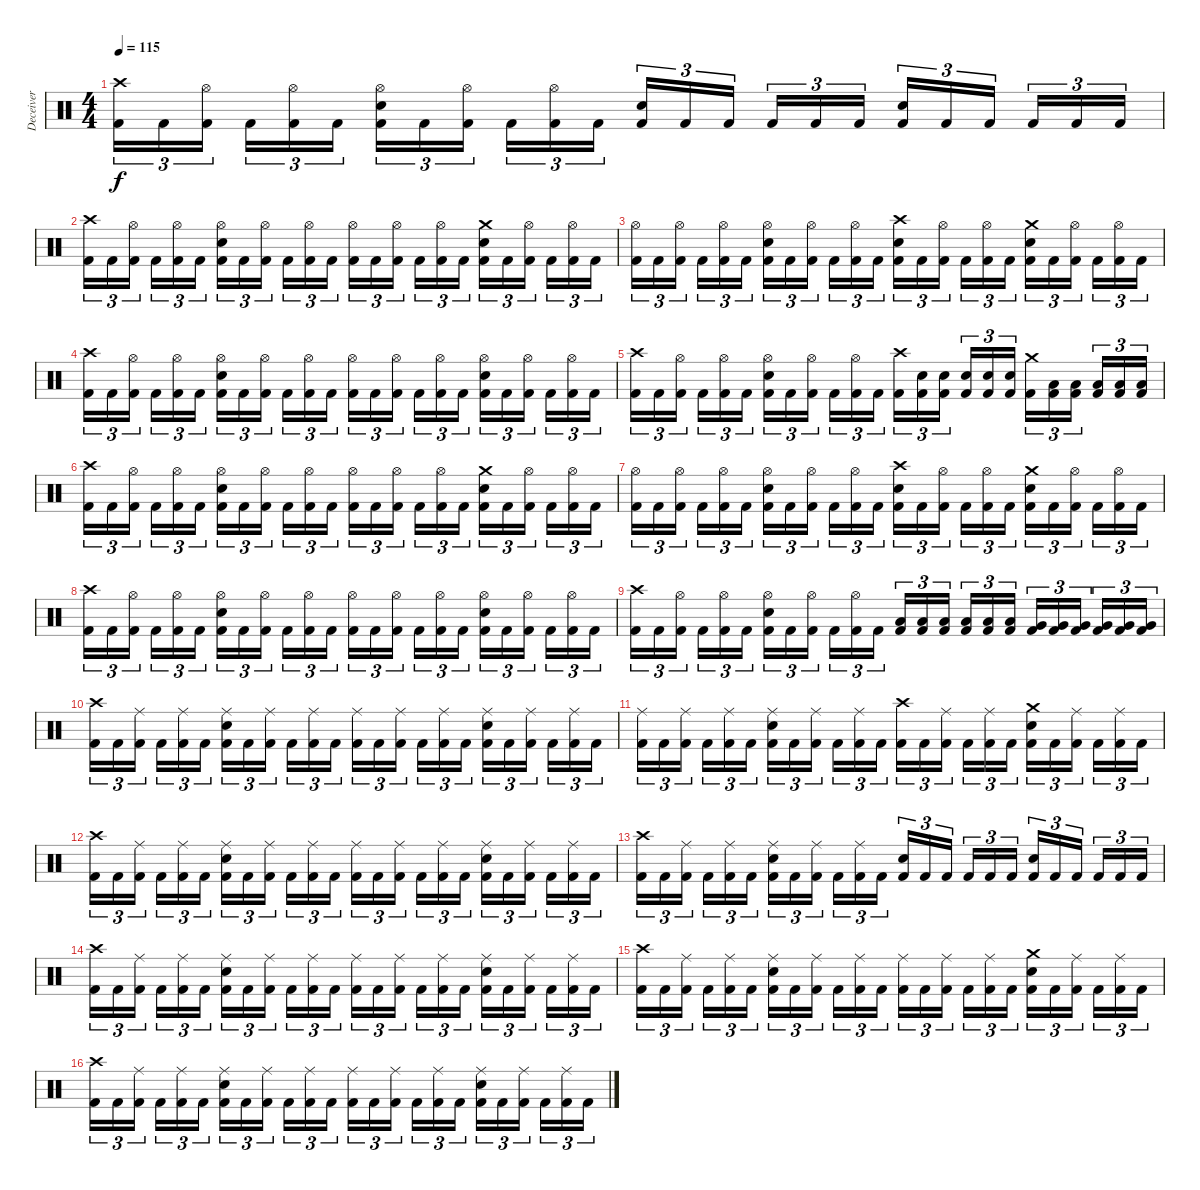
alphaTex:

\track ("Deceiver" "Deceiver") {instrument percussion}
\staff {score}
\articulation defaults
\ts (4 4)
\tempo 115
\clef neutral
\ks c
("Crash high (hit)" "Kick (hit) 2").16{tu (3 2) dy f} "Kick (hit) 2".16{tu (3 2)} ("Hi-Hat (open)" "Kick (hit) 2").16{tu (3 2) beam splitsecondary} "Kick (hit) 2".16{tu (3 2)} ("Hi-Hat (open)" "Kick (hit) 2").16{tu (3 2)} "Kick (hit) 2".16{tu (3 2)} ("Hi-Hat (open)" "Electric Snare (hit)" "Kick (hit) 2").16{tu (3 2)} "Kick (hit) 2".16{tu (3 2)} ("Hi-Hat (open)" "Kick (hit) 2").16{tu (3 2) beam splitsecondary} "Kick (hit) 2".16{tu (3 2)} ("Hi-Hat (open)" "Kick (hit) 2").16{tu (3 2)} "Kick (hit) 2".16{tu (3 2)} ("Electric Snare (hit)" "Kick (hit) 2").16{tu (3 2)} "Kick (hit) 2".16{tu (3 2)} "Kick (hit) 2".16{tu (3 2) beam splitsecondary} "Kick (hit) 2".16{tu (3 2)} "Kick (hit) 2".16{tu (3 2)} "Kick (hit) 2".16{tu (3 2)} ("Electric Snare (hit)" "Kick (hit) 2").16{tu (3 2)} "Kick (hit) 2".16{tu (3 2)} "Kick (hit) 2".16{tu (3 2) beam splitsecondary} "Kick (hit) 2".16{tu (3 2)} "Kick (hit) 2".16{tu (3 2)} "Kick (hit) 2".16{tu (3 2)} |
("Crash high (hit)" "Kick (hit) 2").16{tu (3 2)} "Kick (hit) 2".16{tu (3 2)} ("Hi-Hat (open)" "Kick (hit) 2").16{tu (3 2) beam splitsecondary} "Kick (hit) 2".16{tu (3 2)} ("Hi-Hat (open)" "Kick (hit) 2").16{tu (3 2)} "Kick (hit) 2".16{tu (3 2)} ("Hi-Hat (open)" "Electric Snare (hit)" "Kick (hit) 2").16{tu (3 2)} "Kick (hit) 2".16{tu (3 2)} ("Hi-Hat (open)" "Kick (hit) 2").16{tu (3 2) beam splitsecondary} "Kick (hit) 2".16{tu (3 2)} ("Hi-Hat (open)" "Kick (hit) 2").16{tu (3 2)} "Kick (hit) 2".16{tu (3 2)} ("Hi-Hat (open)" "Kick (hit) 2").16{tu (3 2)} "Kick (hit) 2".16{tu (3 2)} ("Hi-Hat (open)" "Kick (hit) 2").16{tu (3 2) beam splitsecondary} "Kick (hit) 2".16{tu (3 2)} ("Hi-Hat (open)" "Kick (hit) 2").16{tu (3 2)} "Kick (hit) 2".16{tu (3 2)} ("Crash medium (hit)" "Electric Snare (hit)" "Kick (hit) 2").16{tu (3 2)} "Kick (hit) 2".16{tu (3 2)} ("Hi-Hat (open)" "Kick (hit) 2").16{tu (3 2) beam splitsecondary} "Kick (hit) 2".16{tu (3 2)} ("Hi-Hat (open)" "Kick (hit) 2").16{tu (3 2)} "Kick (hit) 2".16{tu (3 2)} |
("Hi-Hat (open)" "Kick (hit) 2").16{tu (3 2)} "Kick (hit) 2".16{tu (3 2)} ("Hi-Hat (open)" "Kick (hit) 2").16{tu (3 2) beam splitsecondary} "Kick (hit) 2".16{tu (3 2)} ("Hi-Hat (open)" "Kick (hit) 2").16{tu (3 2)} "Kick (hit) 2".16{tu (3 2)} ("Hi-Hat (open)" "Electric Snare (hit)" "Kick (hit) 2").16{tu (3 2)} "Kick (hit) 2".16{tu (3 2)} ("Hi-Hat (open)" "Kick (hit) 2").16{tu (3 2) beam splitsecondary} "Kick (hit) 2".16{tu (3 2)} ("Hi-Hat (open)" "Kick (hit) 2").16{tu (3 2)} "Kick (hit) 2".16{tu (3 2)} ("Crash high (hit)" "Electric Snare (hit)" "Kick (hit) 2").16{tu (3 2)} "Kick (hit) 2".16{tu (3 2)} ("Hi-Hat (open)" "Kick (hit) 2").16{tu (3 2) beam splitsecondary} "Kick (hit) 2".16{tu (3 2)} ("Hi-Hat (open)" "Kick (hit) 2").16{tu (3 2)} "Kick (hit) 2".16{tu (3 2)} ("Crash medium (hit)" "Electric Snare (hit)" "Kick (hit) 2").16{tu (3 2)} "Kick (hit) 2".16{tu (3 2)} ("Hi-Hat (open)" "Kick (hit) 2").16{tu (3 2) beam splitsecondary} "Kick (hit) 2".16{tu (3 2)} ("Hi-Hat (open)" "Kick (hit) 2").16{tu (3 2)} "Kick (hit) 2".16{tu (3 2)} |
("Crash high (hit)" "Kick (hit) 2").16{tu (3 2)} "Kick (hit) 2".16{tu (3 2)} ("Hi-Hat (open)" "Kick (hit) 2").16{tu (3 2) beam splitsecondary} "Kick (hit) 2".16{tu (3 2)} ("Hi-Hat (open)" "Kick (hit) 2").16{tu (3 2)} "Kick (hit) 2".16{tu (3 2)} ("Hi-Hat (open)" "Electric Snare (hit)" "Kick (hit) 2").16{tu (3 2)} "Kick (hit) 2".16{tu (3 2)} ("Hi-Hat (open)" "Kick (hit) 2").16{tu (3 2) beam splitsecondary} "Kick (hit) 2".16{tu (3 2)} ("Hi-Hat (open)" "Kick (hit) 2").16{tu (3 2)} "Kick (hit) 2".16{tu (3 2)} ("Hi-Hat (open)" "Kick (hit) 2").16{tu (3 2)} "Kick (hit) 2".16{tu (3 2)} ("Hi-Hat (open)" "Kick (hit) 2").16{tu (3 2) beam splitsecondary} "Kick (hit) 2".16{tu (3 2)} ("Hi-Hat (open)" "Kick (hit) 2").16{tu (3 2)} "Kick (hit) 2".16{tu (3 2)} ("Hi-Hat (open)" "Electric Snare (hit)" "Kick (hit) 2").16{tu (3 2)} "Kick (hit) 2".16{tu (3 2)} ("Hi-Hat (open)" "Kick (hit) 2").16{tu (3 2) beam splitsecondary} "Kick (hit) 2".16{tu (3 2)} ("Hi-Hat (open)" "Kick (hit) 2").16{tu (3 2)} "Kick (hit) 2".16{tu (3 2)} |
("Crash high (hit)" "Kick (hit) 2").16{tu (3 2)} "Kick (hit) 2".16{tu (3 2)} ("Hi-Hat (open)" "Kick (hit) 2").16{tu (3 2) beam splitsecondary} "Kick (hit) 2".16{tu (3 2)} ("Hi-Hat (open)" "Kick (hit) 2").16{tu (3 2)} "Kick (hit) 2".16{tu (3 2)} ("Hi-Hat (open)" "Electric Snare (hit)" "Kick (hit) 2").16{tu (3 2)} "Kick (hit) 2".16{tu (3 2)} ("Hi-Hat (open)" "Kick (hit) 2").16{tu (3 2) beam splitsecondary} "Kick (hit) 2".16{tu (3 2)} ("Hi-Hat (open)" "Kick (hit) 2").16{tu (3 2)} "Kick (hit) 2".16{tu (3 2)} ("Crash high (hit)" "Kick (hit) 2").16{tu (3 2)} ("Electric Snare (hit)" "Kick (hit) 2").16{tu (3 2)} ("Electric Snare (hit)" "Kick (hit) 2").16{tu (3 2) beam splitsecondary} ("Electric Snare (hit)" "Kick (hit) 2").16{tu (3 2)} ("Electric Snare (hit)" "Kick (hit) 2").16{tu (3 2)} ("Electric Snare (hit)" "Kick (hit) 2").16{tu (3 2)} ("Crash medium (hit)" "Kick (hit) 2").16{tu (3 2)} ("Low Tom (hit)" "Kick (hit) 2").16{tu (3 2)} ("Low Tom (hit)" "Kick (hit) 2").16{tu (3 2) beam splitsecondary} ("Low Tom (hit)" "Kick (hit) 2").16{tu (3 2)} ("Low Tom (hit)" "Kick (hit) 2").16{tu (3 2)} ("Low Tom (hit)" "Kick (hit) 2").16{tu (3 2)} |
("Crash high (hit)" "Kick (hit) 2").16{tu (3 2)} "Kick (hit) 2".16{tu (3 2)} ("Hi-Hat (open)" "Kick (hit) 2").16{tu (3 2) beam splitsecondary} "Kick (hit) 2".16{tu (3 2)} ("Hi-Hat (open)" "Kick (hit) 2").16{tu (3 2)} "Kick (hit) 2".16{tu (3 2)} ("Hi-Hat (open)" "Electric Snare (hit)" "Kick (hit) 2").16{tu (3 2)} "Kick (hit) 2".16{tu (3 2)} ("Hi-Hat (open)" "Kick (hit) 2").16{tu (3 2) beam splitsecondary} "Kick (hit) 2".16{tu (3 2)} ("Hi-Hat (open)" "Kick (hit) 2").16{tu (3 2)} "Kick (hit) 2".16{tu (3 2)} ("Hi-Hat (open)" "Kick (hit) 2").16{tu (3 2)} "Kick (hit) 2".16{tu (3 2)} ("Hi-Hat (open)" "Kick (hit) 2").16{tu (3 2) beam splitsecondary} "Kick (hit) 2".16{tu (3 2)} ("Hi-Hat (open)" "Kick (hit) 2").16{tu (3 2)} "Kick (hit) 2".16{tu (3 2)} ("Crash medium (hit)" "Electric Snare (hit)" "Kick (hit) 2").16{tu (3 2)} "Kick (hit) 2".16{tu (3 2)} ("Hi-Hat (open)" "Kick (hit) 2").16{tu (3 2) beam splitsecondary} "Kick (hit) 2".16{tu (3 2)} ("Hi-Hat (open)" "Kick (hit) 2").16{tu (3 2)} "Kick (hit) 2".16{tu (3 2)} |
("Hi-Hat (open)" "Kick (hit) 2").16{tu (3 2)} "Kick (hit) 2".16{tu (3 2)} ("Hi-Hat (open)" "Kick (hit) 2").16{tu (3 2) beam splitsecondary} "Kick (hit) 2".16{tu (3 2)} ("Hi-Hat (open)" "Kick (hit) 2").16{tu (3 2)} "Kick (hit) 2".16{tu (3 2)} ("Hi-Hat (open)" "Electric Snare (hit)" "Kick (hit) 2").16{tu (3 2)} "Kick (hit) 2".16{tu (3 2)} ("Hi-Hat (open)" "Kick (hit) 2").16{tu (3 2) beam splitsecondary} "Kick (hit) 2".16{tu (3 2)} ("Hi-Hat (open)" "Kick (hit) 2").16{tu (3 2)} "Kick (hit) 2".16{tu (3 2)} ("Crash high (hit)" "Electric Snare (hit)" "Kick (hit) 2").16{tu (3 2)} "Kick (hit) 2".16{tu (3 2)} ("Hi-Hat (open)" "Kick (hit) 2").16{tu (3 2) beam splitsecondary} "Kick (hit) 2".16{tu (3 2)} ("Hi-Hat (open)" "Kick (hit) 2").16{tu (3 2)} "Kick (hit) 2".16{tu (3 2)} ("Crash medium (hit)" "Electric Snare (hit)" "Kick (hit) 2").16{tu (3 2)} "Kick (hit) 2".16{tu (3 2)} ("Hi-Hat (open)" "Kick (hit) 2").16{tu (3 2) beam splitsecondary} "Kick (hit) 2".16{tu (3 2)} ("Hi-Hat (open)" "Kick (hit) 2").16{tu (3 2)} "Kick (hit) 2".16{tu (3 2)} |
("Crash high (hit)" "Kick (hit) 2").16{tu (3 2)} "Kick (hit) 2".16{tu (3 2)} ("Hi-Hat (open)" "Kick (hit) 2").16{tu (3 2) beam splitsecondary} "Kick (hit) 2".16{tu (3 2)} ("Hi-Hat (open)" "Kick (hit) 2").16{tu (3 2)} "Kick (hit) 2".16{tu (3 2)} ("Hi-Hat (open)" "Electric Snare (hit)" "Kick (hit) 2").16{tu (3 2)} "Kick (hit) 2".16{tu (3 2)} ("Hi-Hat (open)" "Kick (hit) 2").16{tu (3 2) beam splitsecondary} "Kick (hit) 2".16{tu (3 2)} ("Hi-Hat (open)" "Kick (hit) 2").16{tu (3 2)} "Kick (hit) 2".16{tu (3 2)} ("Hi-Hat (open)" "Kick (hit) 2").16{tu (3 2)} "Kick (hit) 2".16{tu (3 2)} ("Hi-Hat (open)" "Kick (hit) 2").16{tu (3 2) beam splitsecondary} "Kick (hit) 2".16{tu (3 2)} ("Hi-Hat (open)" "Kick (hit) 2").16{tu (3 2)} "Kick (hit) 2".16{tu (3 2)} ("Hi-Hat (open)" "Electric Snare (hit)" "Kick (hit) 2").16{tu (3 2)} "Kick (hit) 2".16{tu (3 2)} ("Hi-Hat (open)" "Kick (hit) 2").16{tu (3 2) beam splitsecondary} "Kick (hit) 2".16{tu (3 2)} ("Hi-Hat (open)" "Kick (hit) 2").16{tu (3 2)} "Kick (hit) 2".16{tu (3 2)} |
("Crash high (hit)" "Kick (hit) 2").16{tu (3 2)} "Kick (hit) 2".16{tu (3 2)} ("Hi-Hat (open)" "Kick (hit) 2").16{tu (3 2) beam splitsecondary} "Kick (hit) 2".16{tu (3 2)} ("Hi-Hat (open)" "Kick (hit) 2").16{tu (3 2)} "Kick (hit) 2".16{tu (3 2)} ("Hi-Hat (open)" "Electric Snare (hit)" "Kick (hit) 2").16{tu (3 2)} "Kick (hit) 2".16{tu (3 2)} ("Hi-Hat (open)" "Kick (hit) 2").16{tu (3 2) beam splitsecondary} "Kick (hit) 2".16{tu (3 2)} ("Hi-Hat (open)" "Kick (hit) 2").16{tu (3 2)} "Kick (hit) 2".16{tu (3 2)} ("Low Tom (hit)" "Kick (hit) 2").16{tu (3 2)} ("Low Tom (hit)" "Kick (hit) 2").16{tu (3 2)} ("Low Tom (hit)" "Kick (hit) 2").16{tu (3 2) beam splitsecondary} ("Low Tom (hit)" "Kick (hit) 2").16{tu (3 2)} ("Low Tom (hit)" "Kick (hit) 2").16{tu (3 2)} ("Low Tom (hit)" "Kick (hit) 2").16{tu (3 2)} ("Very Low Tom (hit)" "Kick (hit) 2").16{tu (3 2)} ("Very Low Tom (hit)" "Kick (hit) 2").16{tu (3 2)} ("Very Low Tom (hit)" "Kick (hit) 2").16{tu (3 2) beam splitsecondary} ("Very Low Tom (hit)" "Kick (hit) 2").16{tu (3 2)} ("Very Low Tom (hit)" "Kick (hit) 2").16{tu (3 2)} ("Very Low Tom (hit)" "Kick (hit) 2").16{tu (3 2)} |
("Crash high (hit)" "Kick (hit) 2").16{tu (3 2)} "Kick (hit) 2".16{tu (3 2)} ("Ride (middle)" "Kick (hit) 2").16{tu (3 2) beam splitsecondary} "Kick (hit) 2".16{tu (3 2)} ("Ride (middle)" "Kick (hit) 2").16{tu (3 2)} "Kick (hit) 2".16{tu (3 2)} ("Ride (middle)" "Electric Snare (hit)" "Kick (hit) 2").16{tu (3 2)} "Kick (hit) 2".16{tu (3 2)} ("Ride (middle)" "Kick (hit) 2").16{tu (3 2) beam splitsecondary} "Kick (hit) 2".16{tu (3 2)} ("Ride (middle)" "Kick (hit) 2").16{tu (3 2)} "Kick (hit) 2".16{tu (3 2)} ("Ride (middle)" "Kick (hit) 2").16{tu (3 2)} "Kick (hit) 2".16{tu (3 2)} ("Ride (middle)" "Kick (hit) 2").16{tu (3 2) beam splitsecondary} "Kick (hit) 2".16{tu (3 2)} ("Ride (middle)" "Kick (hit) 2").16{tu (3 2)} "Kick (hit) 2".16{tu (3 2)} ("Ride (middle)" "Electric Snare (hit)" "Kick (hit) 2").16{tu (3 2)} "Kick (hit) 2".16{tu (3 2)} ("Ride (middle)" "Kick (hit) 2").16{tu (3 2) beam splitsecondary} "Kick (hit) 2".16{tu (3 2)} ("Ride (middle)" "Kick (hit) 2").16{tu (3 2)} "Kick (hit) 2".16{tu (3 2)} |
("Ride (middle)" "Kick (hit) 2").16{tu (3 2)} "Kick (hit) 2".16{tu (3 2)} ("Ride (middle)" "Kick (hit) 2").16{tu (3 2) beam splitsecondary} "Kick (hit) 2".16{tu (3 2)} ("Ride (middle)" "Kick (hit) 2").16{tu (3 2)} "Kick (hit) 2".16{tu (3 2)} ("Ride (middle)" "Electric Snare (hit)" "Kick (hit) 2").16{tu (3 2)} "Kick (hit) 2".16{tu (3 2)} ("Ride (middle)" "Kick (hit) 2").16{tu (3 2) beam splitsecondary} "Kick (hit) 2".16{tu (3 2)} ("Ride (middle)" "Kick (hit) 2").16{tu (3 2)} "Kick (hit) 2".16{tu (3 2)} ("Crash high (hit)" "Kick (hit) 2").16{tu (3 2)} "Kick (hit) 2".16{tu (3 2)} ("Ride (middle)" "Kick (hit) 2").16{tu (3 2) beam splitsecondary} "Kick (hit) 2".16{tu (3 2)} ("Ride (middle)" "Kick (hit) 2").16{tu (3 2)} "Kick (hit) 2".16{tu (3 2)} ("Crash medium (hit)" "Electric Snare (hit)" "Kick (hit) 2").16{tu (3 2)} "Kick (hit) 2".16{tu (3 2)} ("Ride (middle)" "Kick (hit) 2").16{tu (3 2) beam splitsecondary} "Kick (hit) 2".16{tu (3 2)} ("Ride (middle)" "Kick (hit) 2").16{tu (3 2)} "Kick (hit) 2".16{tu (3 2)} |
("Crash high (hit)" "Kick (hit) 2").16{tu (3 2)} "Kick (hit) 2".16{tu (3 2)} ("Ride (middle)" "Kick (hit) 2").16{tu (3 2) beam splitsecondary} "Kick (hit) 2".16{tu (3 2)} ("Ride (middle)" "Kick (hit) 2").16{tu (3 2)} "Kick (hit) 2".16{tu (3 2)} ("Ride (middle)" "Electric Snare (hit)" "Kick (hit) 2").16{tu (3 2)} "Kick (hit) 2".16{tu (3 2)} ("Ride (middle)" "Kick (hit) 2").16{tu (3 2) beam splitsecondary} "Kick (hit) 2".16{tu (3 2)} ("Ride (middle)" "Kick (hit) 2").16{tu (3 2)} "Kick (hit) 2".16{tu (3 2)} ("Ride (middle)" "Kick (hit) 2").16{tu (3 2)} "Kick (hit) 2".16{tu (3 2)} ("Ride (middle)" "Kick (hit) 2").16{tu (3 2) beam splitsecondary} "Kick (hit) 2".16{tu (3 2)} ("Ride (middle)" "Kick (hit) 2").16{tu (3 2)} "Kick (hit) 2".16{tu (3 2)} ("Ride (middle)" "Electric Snare (hit)" "Kick (hit) 2").16{tu (3 2)} "Kick (hit) 2".16{tu (3 2)} ("Ride (middle)" "Kick (hit) 2").16{tu (3 2) beam splitsecondary} "Kick (hit) 2".16{tu (3 2)} ("Ride (middle)" "Kick (hit) 2").16{tu (3 2)} "Kick (hit) 2".16{tu (3 2)} |
("Crash high (hit)" "Kick (hit) 2").16{tu (3 2)} "Kick (hit) 2".16{tu (3 2)} ("Ride (middle)" "Kick (hit) 2").16{tu (3 2) beam splitsecondary} "Kick (hit) 2".16{tu (3 2)} ("Ride (middle)" "Kick (hit) 2").16{tu (3 2)} "Kick (hit) 2".16{tu (3 2)} ("Ride (middle)" "Electric Snare (hit)" "Kick (hit) 2").16{tu (3 2)} "Kick (hit) 2".16{tu (3 2)} ("Ride (middle)" "Kick (hit) 2").16{tu (3 2) beam splitsecondary} "Kick (hit) 2".16{tu (3 2)} ("Ride (middle)" "Kick (hit) 2").16{tu (3 2)} "Kick (hit) 2".16{tu (3 2)} ("Electric Snare (hit)" "Kick (hit) 2").16{tu (3 2)} "Kick (hit) 2".16{tu (3 2)} "Kick (hit) 2".16{tu (3 2) beam splitsecondary} "Kick (hit) 2".16{tu (3 2)} "Kick (hit) 2".16{tu (3 2)} "Kick (hit) 2".16{tu (3 2)} ("Electric Snare (hit)" "Kick (hit) 2").16{tu (3 2)} "Kick (hit) 2".16{tu (3 2)} "Kick (hit) 2".16{tu (3 2) beam splitsecondary} "Kick (hit) 2".16{tu (3 2)} "Kick (hit) 2".16{tu (3 2)} "Kick (hit) 2".16{tu (3 2)} |
("Crash high (hit)" "Kick (hit) 2").16{tu (3 2)} "Kick (hit) 2".16{tu (3 2)} ("Ride (middle)" "Kick (hit) 2").16{tu (3 2) beam splitsecondary} "Kick (hit) 2".16{tu (3 2)} ("Ride (middle)" "Kick (hit) 2").16{tu (3 2)} "Kick (hit) 2".16{tu (3 2)} ("Ride (middle)" "Electric Snare (hit)" "Kick (hit) 2").16{tu (3 2)} "Kick (hit) 2".16{tu (3 2)} ("Ride (middle)" "Kick (hit) 2").16{tu (3 2) beam splitsecondary} "Kick (hit) 2".16{tu (3 2)} ("Ride (middle)" "Kick (hit) 2").16{tu (3 2)} "Kick (hit) 2".16{tu (3 2)} ("Ride (middle)" "Kick (hit) 2").16{tu (3 2)} "Kick (hit) 2".16{tu (3 2)} ("Ride (middle)" "Kick (hit) 2").16{tu (3 2) beam splitsecondary} "Kick (hit) 2".16{tu (3 2)} ("Ride (middle)" "Kick (hit) 2").16{tu (3 2)} "Kick (hit) 2".16{tu (3 2)} ("Ride (middle)" "Electric Snare (hit)" "Kick (hit) 2").16{tu (3 2)} "Kick (hit) 2".16{tu (3 2)} ("Ride (middle)" "Kick (hit) 2").16{tu (3 2) beam splitsecondary} "Kick (hit) 2".16{tu (3 2)} ("Ride (middle)" "Kick (hit) 2").16{tu (3 2)} "Kick (hit) 2".16{tu (3 2)} |
("Crash high (hit)" "Kick (hit) 2").16{tu (3 2)} "Kick (hit) 2".16{tu (3 2)} ("Ride (middle)" "Kick (hit) 2").16{tu (3 2) beam splitsecondary} "Kick (hit) 2".16{tu (3 2)} ("Ride (middle)" "Kick (hit) 2").16{tu (3 2)} "Kick (hit) 2".16{tu (3 2)} ("Ride (middle)" "Electric Snare (hit)" "Kick (hit) 2").16{tu (3 2)} "Kick (hit) 2".16{tu (3 2)} ("Ride (middle)" "Kick (hit) 2").16{tu (3 2) beam splitsecondary} "Kick (hit) 2".16{tu (3 2)} ("Ride (middle)" "Kick (hit) 2").16{tu (3 2)} "Kick (hit) 2".16{tu (3 2)} ("Ride (middle)" "Kick (hit) 2").16{tu (3 2)} "Kick (hit) 2".16{tu (3 2)} ("Ride (middle)" "Kick (hit) 2").16{tu (3 2) beam splitsecondary} "Kick (hit) 2".16{tu (3 2)} ("Ride (middle)" "Kick (hit) 2").16{tu (3 2)} "Kick (hit) 2".16{tu (3 2)} ("Crash medium (hit)" "Electric Snare (hit)" "Kick (hit) 2").16{tu (3 2)} "Kick (hit) 2".16{tu (3 2)} ("Ride (middle)" "Kick (hit) 2").16{tu (3 2) beam splitsecondary} "Kick (hit) 2".16{tu (3 2)} ("Ride (middle)" "Kick (hit) 2").16{tu (3 2)} "Kick (hit) 2".16{tu (3 2)} |
("Crash high (hit)" "Kick (hit) 2").16{tu (3 2)} "Kick (hit) 2".16{tu (3 2)} ("Ride (middle)" "Kick (hit) 2").16{tu (3 2) beam splitsecondary} "Kick (hit) 2".16{tu (3 2)} ("Ride (middle)" "Kick (hit) 2").16{tu (3 2)} "Kick (hit) 2".16{tu (3 2)} ("Ride (middle)" "Electric Snare (hit)" "Kick (hit) 2").16{tu (3 2)} "Kick (hit) 2".16{tu (3 2)} ("Ride (middle)" "Kick (hit) 2").16{tu (3 2) beam splitsecondary} "Kick (hit) 2".16{tu (3 2)} ("Ride (middle)" "Kick (hit) 2").16{tu (3 2)} "Kick (hit) 2".16{tu (3 2)} ("Ride (middle)" "Kick (hit) 2").16{tu (3 2)} "Kick (hit) 2".16{tu (3 2)} ("Ride (middle)" "Kick (hit) 2").16{tu (3 2) beam splitsecondary} "Kick (hit) 2".16{tu (3 2)} ("Ride (middle)" "Kick (hit) 2").16{tu (3 2)} "Kick (hit) 2".16{tu (3 2)} ("Ride (middle)" "Electric Snare (hit)" "Kick (hit) 2").16{tu (3 2)} "Kick (hit) 2".16{tu (3 2)} ("Ride (middle)" "Kick (hit) 2").16{tu (3 2) beam splitsecondary} "Kick (hit) 2".16{tu (3 2)} ("Ride (middle)" "Kick (hit) 2").16{tu (3 2)} "Kick (hit) 2".16{tu (3 2)}
